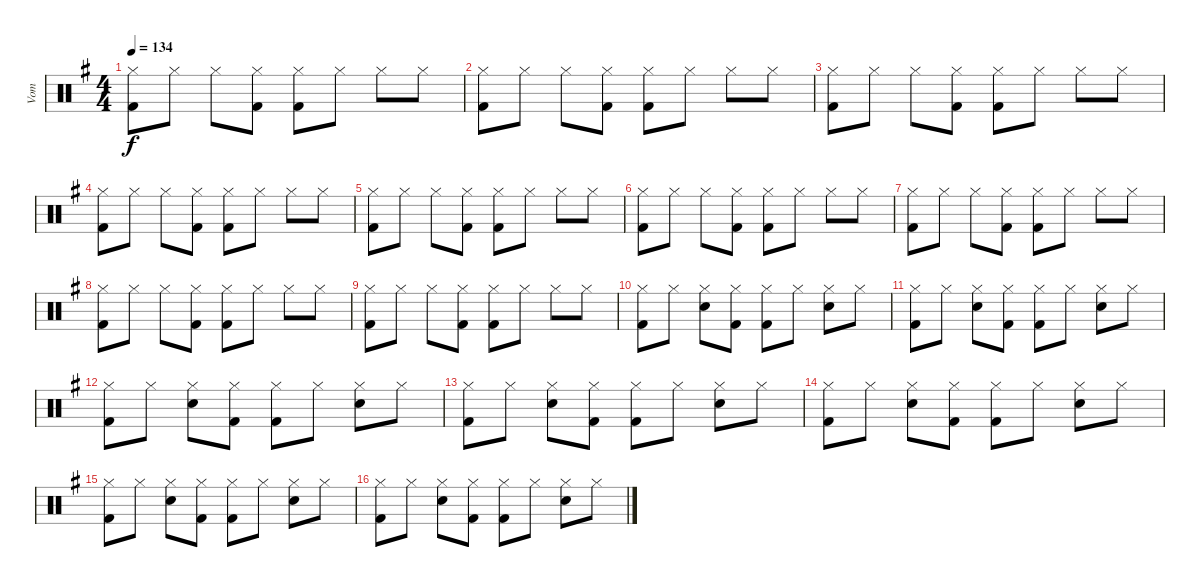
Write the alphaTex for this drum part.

\track ("Vom" "Vom") {instrument percussion}
\staff {score}
\articulation defaults
\ts (4 4)
\tempo 134
\clef neutral
\ks g
("Hi-Hat (closed)" "Kick (hit) 2").8{dy f} "Hi-Hat (closed)".8 "Hi-Hat (closed)".8 ("Hi-Hat (closed)" "Kick (hit) 2").8 ("Hi-Hat (closed)" "Kick (hit) 2").8 "Hi-Hat (closed)".8 "Hi-Hat (closed)".8 "Hi-Hat (closed)".8 |
("Hi-Hat (closed)" "Kick (hit) 2").8 "Hi-Hat (closed)".8 "Hi-Hat (closed)".8 ("Hi-Hat (closed)" "Kick (hit) 2").8 ("Hi-Hat (closed)" "Kick (hit) 2").8 "Hi-Hat (closed)".8 "Hi-Hat (closed)".8 "Hi-Hat (closed)".8 |
("Hi-Hat (closed)" "Kick (hit) 2").8 "Hi-Hat (closed)".8 "Hi-Hat (closed)".8 ("Hi-Hat (closed)" "Kick (hit) 2").8 ("Hi-Hat (closed)" "Kick (hit) 2").8 "Hi-Hat (closed)".8 "Hi-Hat (closed)".8 "Hi-Hat (closed)".8 |
("Hi-Hat (closed)" "Kick (hit) 2").8 "Hi-Hat (closed)".8 "Hi-Hat (closed)".8 ("Hi-Hat (closed)" "Kick (hit) 2").8 ("Hi-Hat (closed)" "Kick (hit) 2").8 "Hi-Hat (closed)".8 "Hi-Hat (closed)".8 "Hi-Hat (closed)".8 |
("Hi-Hat (closed)" "Kick (hit) 2").8 "Hi-Hat (closed)".8 "Hi-Hat (closed)".8 ("Hi-Hat (closed)" "Kick (hit) 2").8 ("Hi-Hat (closed)" "Kick (hit) 2").8 "Hi-Hat (closed)".8 "Hi-Hat (closed)".8 "Hi-Hat (closed)".8 |
("Hi-Hat (closed)" "Kick (hit) 2").8 "Hi-Hat (closed)".8 "Hi-Hat (closed)".8 ("Hi-Hat (closed)" "Kick (hit) 2").8 ("Hi-Hat (closed)" "Kick (hit) 2").8 "Hi-Hat (closed)".8 "Hi-Hat (closed)".8 "Hi-Hat (closed)".8 |
("Hi-Hat (closed)" "Kick (hit) 2").8 "Hi-Hat (closed)".8 "Hi-Hat (closed)".8 ("Hi-Hat (closed)" "Kick (hit) 2").8 ("Hi-Hat (closed)" "Kick (hit) 2").8 "Hi-Hat (closed)".8 "Hi-Hat (closed)".8 "Hi-Hat (closed)".8 |
("Hi-Hat (closed)" "Kick (hit) 2").8 "Hi-Hat (closed)".8 "Hi-Hat (closed)".8 ("Hi-Hat (closed)" "Kick (hit) 2").8 ("Hi-Hat (closed)" "Kick (hit) 2").8 "Hi-Hat (closed)".8 "Hi-Hat (closed)".8 "Hi-Hat (closed)".8 |
("Hi-Hat (closed)" "Kick (hit) 2").8 "Hi-Hat (closed)".8 "Hi-Hat (closed)".8 ("Hi-Hat (closed)" "Kick (hit) 2").8 ("Hi-Hat (closed)" "Kick (hit) 2").8 "Hi-Hat (closed)".8 "Hi-Hat (closed)".8 "Hi-Hat (closed)".8 |
("Hi-Hat (closed)" "Kick (hit) 2").8 "Hi-Hat (closed)".8 ("Hi-Hat (closed)" "Snare (hit) 2").8 ("Hi-Hat (closed)" "Kick (hit) 2").8 ("Hi-Hat (closed)" "Kick (hit) 2").8 "Hi-Hat (closed)".8 ("Hi-Hat (closed)" "Snare (hit) 2").8 "Hi-Hat (closed)".8 |
("Hi-Hat (closed)" "Kick (hit) 2").8 "Hi-Hat (closed)".8 ("Hi-Hat (closed)" "Snare (hit) 2").8 ("Hi-Hat (closed)" "Kick (hit) 2").8 ("Hi-Hat (closed)" "Kick (hit) 2").8 "Hi-Hat (closed)".8 ("Hi-Hat (closed)" "Snare (hit) 2").8 "Hi-Hat (closed)".8 |
("Hi-Hat (closed)" "Kick (hit) 2").8 "Hi-Hat (closed)".8 ("Hi-Hat (closed)" "Snare (hit) 2").8 ("Hi-Hat (closed)" "Kick (hit) 2").8 ("Hi-Hat (closed)" "Kick (hit) 2").8 "Hi-Hat (closed)".8 ("Hi-Hat (closed)" "Snare (hit) 2").8 "Hi-Hat (closed)".8 |
("Hi-Hat (closed)" "Kick (hit) 2").8 "Hi-Hat (closed)".8 ("Hi-Hat (closed)" "Snare (hit) 2").8 ("Hi-Hat (closed)" "Kick (hit) 2").8 ("Hi-Hat (closed)" "Kick (hit) 2").8 "Hi-Hat (closed)".8 ("Hi-Hat (closed)" "Snare (hit) 2").8 "Hi-Hat (closed)".8 |
("Hi-Hat (closed)" "Kick (hit) 2").8 "Hi-Hat (closed)".8 ("Hi-Hat (closed)" "Snare (hit) 2").8 ("Hi-Hat (closed)" "Kick (hit) 2").8 ("Hi-Hat (closed)" "Kick (hit) 2").8 "Hi-Hat (closed)".8 ("Hi-Hat (closed)" "Snare (hit) 2").8 "Hi-Hat (closed)".8 |
("Hi-Hat (closed)" "Kick (hit) 2").8 "Hi-Hat (closed)".8 ("Hi-Hat (closed)" "Snare (hit) 2").8 ("Hi-Hat (closed)" "Kick (hit) 2").8 ("Hi-Hat (closed)" "Kick (hit) 2").8 "Hi-Hat (closed)".8 ("Hi-Hat (closed)" "Snare (hit) 2").8 "Hi-Hat (closed)".8 |
("Hi-Hat (closed)" "Kick (hit) 2").8 "Hi-Hat (closed)".8 ("Hi-Hat (closed)" "Snare (hit) 2").8 ("Hi-Hat (closed)" "Kick (hit) 2").8 ("Hi-Hat (closed)" "Kick (hit) 2").8 "Hi-Hat (closed)".8 ("Hi-Hat (closed)" "Snare (hit) 2").8 "Hi-Hat (closed)".8
